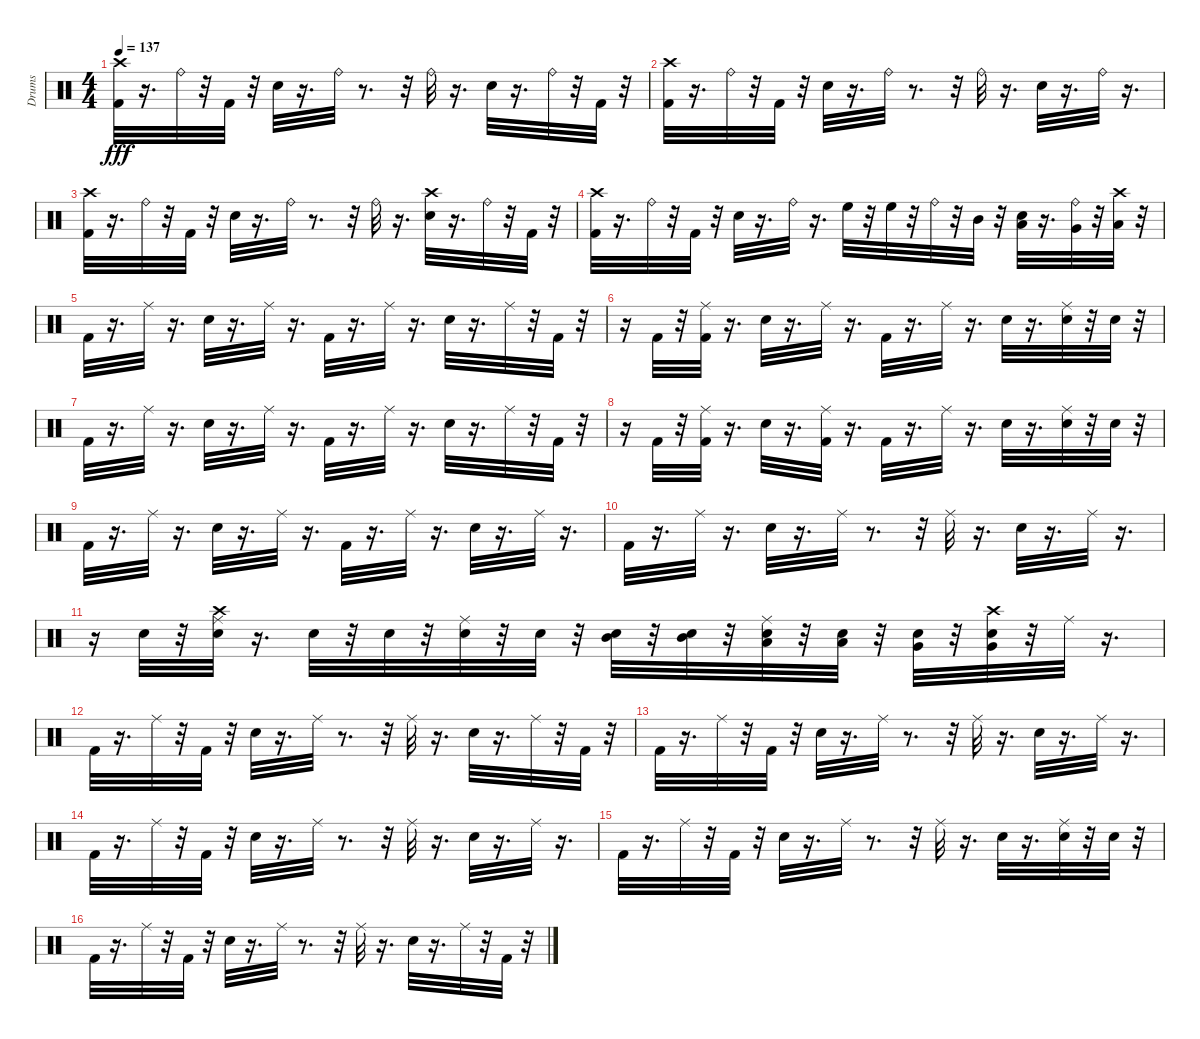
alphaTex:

\track ("Drums" "Drums") {instrument percussion}
\staff {score}
\articulation defaults
\ts (4 4)
\tempo 137
\clef neutral
\ks c
("Crash high (hit)" "Kick (hit) 2").32{dy fff} r.16{d} "Ride (bell)".32 r.32 "Kick (hit) 2".32 r.32 "Snare (hit) 2".32 r.16{d} "Ride (bell)".32 r.8{d} r.32 "Ride (bell)".32 r.16{d} "Snare (hit) 2".32 r.16{d} "Ride (bell)".32 r.32 "Kick (hit) 2".32 r.32 |
("Crash high (hit)" "Kick (hit) 2").32 r.16{d} "Ride (bell)".32 r.32 "Kick (hit) 2".32 r.32 "Snare (hit) 2".32 r.16{d} "Ride (bell)".32 r.8{d} r.32 "Ride (bell)".32 r.16{d} "Snare (hit) 2".32 r.16{d} "Ride (bell)".32 r.16{d} |
("Crash high (hit)" "Kick (hit) 2").32 r.16{d} "Ride (bell)".32 r.32 "Kick (hit) 2".32 r.32 "Snare (hit) 2".32 r.16{d} "Ride (bell)".32 r.8{d} r.32 "Ride (bell)".32 r.16{d} ("Crash high (hit)" "Snare (hit) 2").32 r.16{d} "Ride (bell)".32 r.32 "Kick (hit) 2".32 r.32 |
("Crash high (hit)" "Kick (hit) 2").32 r.16{d} "Ride (bell)".32 r.32 "Kick (hit) 2".32 r.32 "Snare (hit) 2".32 r.16{d} "Ride (bell)".32 r.16{d} "High Floor Tom (hit)".32 r.32 "High Floor Tom (hit)".32 r.32 "Ride (bell)".32 r.32 "Mid Tom (hit)".32 r.32 ("Low Tom (hit)" "Snare (hit) 2").32 r.16{d} ("Very Low Tom (hit)" "Ride (bell)").32 r.32 ("Crash high (hit)" "Low Floor Tom (hit)").32 r.32 |
"Kick (hit) 2".32 r.16{d} "Ride (middle)".32 r.16{d} "Snare (hit) 2".32 r.16{d} "Ride (middle)".32 r.16{d} "Kick (hit) 2".32 r.16{d} "Ride (middle)".32 r.16{d} "Snare (hit) 2".32 r.16{d} "Ride (middle)".32 r.32 "Kick (hit) 2".32 r.32 |
r.16 "Kick (hit) 2".32 r.32 ("Kick (hit) 2" "Ride (middle)").32 r.16{d} "Snare (hit) 2".32 r.16{d} "Ride (middle)".32 r.16{d} "Kick (hit) 2".32 r.16{d} "Ride (middle)".32 r.16{d} "Snare (hit) 2".32 r.16{d} ("Snare (hit) 2" "Ride (middle)").32 r.32 "Snare (hit) 2".32 r.32 |
"Kick (hit) 2".32 r.16{d} "Ride (middle)".32 r.16{d} "Snare (hit) 2".32 r.16{d} "Ride (middle)".32 r.16{d} "Kick (hit) 2".32 r.16{d} "Ride (middle)".32 r.16{d} "Snare (hit) 2".32 r.16{d} "Ride (middle)".32 r.32 "Kick (hit) 2".32 r.32 |
r.16 "Kick (hit) 2".32 r.32 ("Kick (hit) 2" "Ride (middle)").32 r.16{d} "Snare (hit) 2".32 r.16{d} ("Kick (hit) 2" "Ride (middle)").32 r.16{d} "Kick (hit) 2".32 r.16{d} "Ride (middle)".32 r.16{d} "Snare (hit) 2".32 r.16{d} ("Snare (hit) 2" "Ride (middle)").32 r.32 "Snare (hit) 2".32 r.32 |
"Kick (hit) 2".32 r.16{d} "Ride (middle)".32 r.16{d} "Snare (hit) 2".32 r.16{d} "Ride (middle)".32 r.16{d} "Kick (hit) 2".32 r.16{d} "Ride (middle)".32 r.16{d} "Snare (hit) 2".32 r.16{d} "Ride (middle)".32 r.16{d} |
"Kick (hit) 2".32 r.16{d} "Ride (middle)".32 r.16{d} "Snare (hit) 2".32 r.16{d} "Ride (middle)".32 r.8{d} r.32 "Ride (middle)".32 r.16{d} "Snare (hit) 2".32 r.16{d} "Ride (middle)".32 r.16{d} |
r.16 "Snare (hit) 2".32 r.32 ("Crash high (hit)" "Snare (hit) 2" "Ride (middle)").32 r.16{d} "Snare (hit) 2".32 r.32 "Snare (hit) 2".32 r.32 ("Snare (hit) 2" "Ride (middle)").32 r.32 "Snare (hit) 2".32 r.32 ("Snare (hit) 2" "Mid Tom (hit)").32 r.32 ("Mid Tom (hit)" "Snare (hit) 2").32 r.32 ("Low Tom (hit)" "Snare (hit) 2" "Ride (middle)").32 r.32 ("Low Tom (hit)" "Snare (hit) 2").32 r.32 ("Very Low Tom (hit)" "Snare (hit) 2").32 r.32 ("Very Low Tom (hit)" "Crash high (hit)" "Snare (hit) 2").32 r.32 "Ride (middle)".32 r.16{d} |
"Kick (hit) 2".32 r.16{d} "Ride (middle)".32 r.32 "Kick (hit) 2".32 r.32 "Snare (hit) 2".32 r.16{d} "Ride (middle)".32 r.8{d} r.32 "Ride (middle)".32 r.16{d} "Snare (hit) 2".32 r.16{d} "Ride (middle)".32 r.32 "Kick (hit) 2".32 r.32 |
"Kick (hit) 2".32 r.16{d} "Ride (middle)".32 r.32 "Kick (hit) 2".32 r.32 "Snare (hit) 2".32 r.16{d} "Ride (middle)".32 r.8{d} r.32 "Ride (middle)".32 r.16{d} "Snare (hit) 2".32 r.16{d} "Ride (middle)".32 r.16{d} |
"Kick (hit) 2".32 r.16{d} "Ride (middle)".32 r.32 "Kick (hit) 2".32 r.32 "Snare (hit) 2".32 r.16{d} "Ride (middle)".32 r.8{d} r.32 "Ride (middle)".32 r.16{d} "Snare (hit) 2".32 r.16{d} "Ride (middle)".32 r.16{d} |
"Kick (hit) 2".32 r.16{d} "Ride (middle)".32 r.32 "Kick (hit) 2".32 r.32 "Snare (hit) 2".32 r.16{d} "Ride (middle)".32 r.8{d} r.32 "Ride (middle)".32 r.16{d} "Snare (hit) 2".32 r.16{d} ("Snare (hit) 2" "Ride (middle)").32 r.32 "Snare (hit) 2".32 r.32 |
"Kick (hit) 2".32 r.16{d} "Ride (middle)".32 r.32 "Kick (hit) 2".32 r.32 "Snare (hit) 2".32 r.16{d} "Ride (middle)".32 r.8{d} r.32 "Ride (middle)".32 r.16{d} "Snare (hit) 2".32 r.16{d} "Ride (middle)".32 r.32 "Kick (hit) 2".32 r.32
